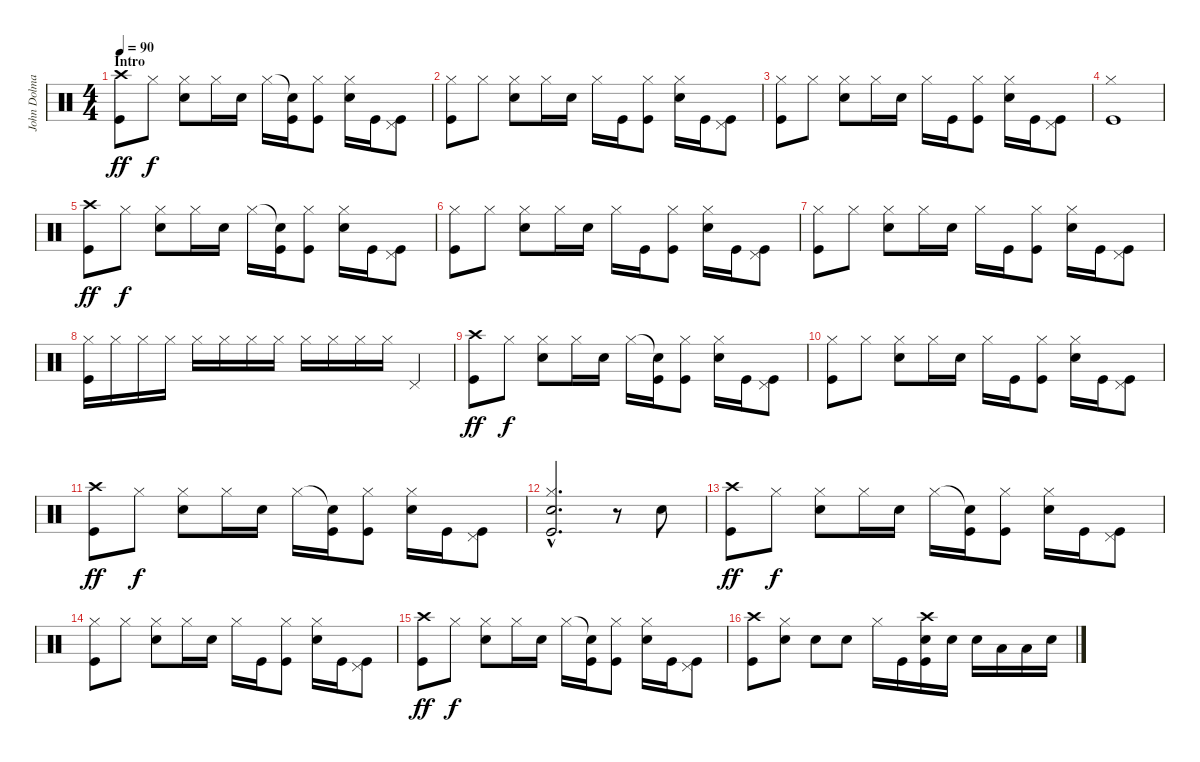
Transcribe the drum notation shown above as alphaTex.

\track ("John Dolmayan " "John Dolma") {instrument percussion}
\staff {score}
\articulation defaults
\ts (4 4)
\section ("" "Intro")
\tempo 90
\clef neutral
\ks c
("Crash high (hit)" "Kick (hit)").8{dy ff} "Hi-Hat (closed)".8{dy f} ("Hi-Hat (closed)" "Snare (hit) 2").8 "Hi-Hat (closed)".16 "Snare (hit) 2".16 "Hi-Hat (closed)".16 ("Snare (hit)"{t} "Kick (hit)").16 ("Hi-Hat (closed)" "Kick (hit)").8 ("Hi-Hat (closed)" "Snare (hit) 2").16 "Kick (hit)".16 ("Pedal Hi-Hat (hit)" "Kick (hit)").8 |
("Hi-Hat (closed)" "Kick (hit)").8 "Hi-Hat (closed)".8 ("Hi-Hat (closed)" "Snare (hit) 2").8 "Hi-Hat (closed)".16 "Snare (hit) 2".16 "Hi-Hat (closed)".16 "Kick (hit)".16 ("Hi-Hat (closed)" "Kick (hit)").8 ("Hi-Hat (closed)" "Snare (hit) 2").16 "Kick (hit)".16 ("Pedal Hi-Hat (hit)" "Kick (hit)").8 |
("Hi-Hat (closed)" "Kick (hit)").8 "Hi-Hat (closed)".8 ("Hi-Hat (closed)" "Snare (hit) 2").8 "Hi-Hat (closed)".16 "Snare (hit) 2".16 "Hi-Hat (closed)".16 "Kick (hit)".16 ("Hi-Hat (closed)" "Kick (hit)").8 ("Hi-Hat (closed)" "Snare (hit) 2").16 "Kick (hit)".16 ("Pedal Hi-Hat (hit)" "Kick (hit)").8 |
("Hi-Hat (closed)" "Kick (hit)").1 |
("Crash high (hit)" "Kick (hit)").8{dy ff} "Hi-Hat (closed)".8{dy f} ("Hi-Hat (closed)" "Snare (hit) 2").8 "Hi-Hat (closed)".16 "Snare (hit) 2".16 "Hi-Hat (closed)".16 ("Snare (hit)"{t} "Kick (hit)").16 ("Hi-Hat (closed)" "Kick (hit)").8 ("Hi-Hat (closed)" "Snare (hit) 2").16 "Kick (hit)".16 ("Pedal Hi-Hat (hit)" "Kick (hit)").8 |
("Hi-Hat (closed)" "Kick (hit)").8 "Hi-Hat (closed)".8 ("Hi-Hat (closed)" "Snare (hit) 2").8 "Hi-Hat (closed)".16 "Snare (hit) 2".16 "Hi-Hat (closed)".16 "Kick (hit)".16 ("Hi-Hat (closed)" "Kick (hit)").8 ("Hi-Hat (closed)" "Snare (hit) 2").16 "Kick (hit)".16 ("Pedal Hi-Hat (hit)" "Kick (hit)").8 |
("Hi-Hat (closed)" "Kick (hit)").8 "Hi-Hat (closed)".8 ("Hi-Hat (closed)" "Snare (hit) 2").8 "Hi-Hat (closed)".16 "Snare (hit) 2".16 "Hi-Hat (closed)".16 "Kick (hit)".16 ("Hi-Hat (closed)" "Kick (hit)").8 ("Hi-Hat (closed)" "Snare (hit) 2").16 "Kick (hit)".16 ("Pedal Hi-Hat (hit)" "Kick (hit)").8 |
("Hi-Hat (closed)" "Kick (hit)").16 "Hi-Hat (closed)".16 "Hi-Hat (closed)".16 "Hi-Hat (closed)".16 "Hi-Hat (closed)".16 "Hi-Hat (closed)".16 "Hi-Hat (closed)".16 "Hi-Hat (closed)".16 "Hi-Hat (closed)".16 "Hi-Hat (closed)".16 "Hi-Hat (closed)".16 "Hi-Hat (closed)".16 "Pedal Hi-Hat (hit)".4 |
("Crash high (hit)" "Kick (hit)").8{dy ff} "Hi-Hat (closed)".8{dy f} ("Hi-Hat (closed)" "Snare (hit) 2").8 "Hi-Hat (closed)".16 "Snare (hit) 2".16 "Hi-Hat (closed)".16 ("Snare (hit)"{t} "Kick (hit)").16 ("Hi-Hat (closed)" "Kick (hit)").8 ("Hi-Hat (closed)" "Snare (hit) 2").16 "Kick (hit)".16 ("Pedal Hi-Hat (hit)" "Kick (hit)").8 |
("Hi-Hat (closed)" "Kick (hit)").8 "Hi-Hat (closed)".8 ("Hi-Hat (closed)" "Snare (hit) 2").8 "Hi-Hat (closed)".16 "Snare (hit) 2".16 "Hi-Hat (closed)".16 "Kick (hit)".16 ("Hi-Hat (closed)" "Kick (hit)").8 ("Hi-Hat (closed)" "Snare (hit) 2").16 "Kick (hit)".16 ("Pedal Hi-Hat (hit)" "Kick (hit)").8 |
("Crash high (hit)" "Kick (hit)").8{dy ff} "Hi-Hat (closed)".8{dy f} ("Hi-Hat (closed)" "Snare (hit) 2").8 "Hi-Hat (closed)".16 "Snare (hit) 2".16 "Hi-Hat (closed)".16 ("Snare (hit)"{t} "Kick (hit)").16 ("Hi-Hat (closed)" "Kick (hit)").8 ("Hi-Hat (closed)" "Snare (hit) 2").16 "Kick (hit)".16 ("Pedal Hi-Hat (hit)" "Kick (hit)").8 |
("Hi-Hat (closed)"{hac} "Snare (hit) 2"{hac} "Kick (hit)"{hac}).2{d} r.8 "Snare (hit) 2".8 |
("Crash high (hit)" "Kick (hit)").8{dy ff} "Hi-Hat (closed)".8{dy f} ("Hi-Hat (closed)" "Snare (hit) 2").8 "Hi-Hat (closed)".16 "Snare (hit) 2".16 "Hi-Hat (closed)".16 ("Snare (hit)"{t} "Kick (hit)").16 ("Hi-Hat (closed)" "Kick (hit)").8 ("Hi-Hat (closed)" "Snare (hit) 2").16 "Kick (hit)".16 ("Pedal Hi-Hat (hit)" "Kick (hit)").8 |
("Hi-Hat (closed)" "Kick (hit)").8 "Hi-Hat (closed)".8 ("Hi-Hat (closed)" "Snare (hit) 2").8 "Hi-Hat (closed)".16 "Snare (hit) 2".16 "Hi-Hat (closed)".16 "Kick (hit)".16 ("Hi-Hat (closed)" "Kick (hit)").8 ("Hi-Hat (closed)" "Snare (hit) 2").16 "Kick (hit)".16 ("Pedal Hi-Hat (hit)" "Kick (hit)").8 |
("Crash high (hit)" "Kick (hit)").8{dy ff} "Hi-Hat (closed)".8{dy f} ("Hi-Hat (closed)" "Snare (hit) 2").8 "Hi-Hat (closed)".16 "Snare (hit) 2".16 "Hi-Hat (closed)".16 ("Snare (hit)"{t} "Kick (hit)").16 ("Hi-Hat (closed)" "Kick (hit)").8 ("Hi-Hat (closed)" "Snare (hit) 2").16 "Kick (hit)".16 ("Pedal Hi-Hat (hit)" "Kick (hit)").8 |
("Crash high (hit)" "Kick (hit)").8 ("Hi-Hat (closed)" "Snare (hit) 2").8 "Snare (hit) 2".8 "Snare (hit) 2".8 "Hi-Hat (closed)".16 "Kick (hit)".16 ("Crash high (hit)" "Snare (hit) 2" "Kick (hit)").16 "Snare (hit) 2".16 "Snare (hit) 2".16 "Low Tom (hit)".16 "Low Tom (hit)".16 "Snare (hit) 2".16
